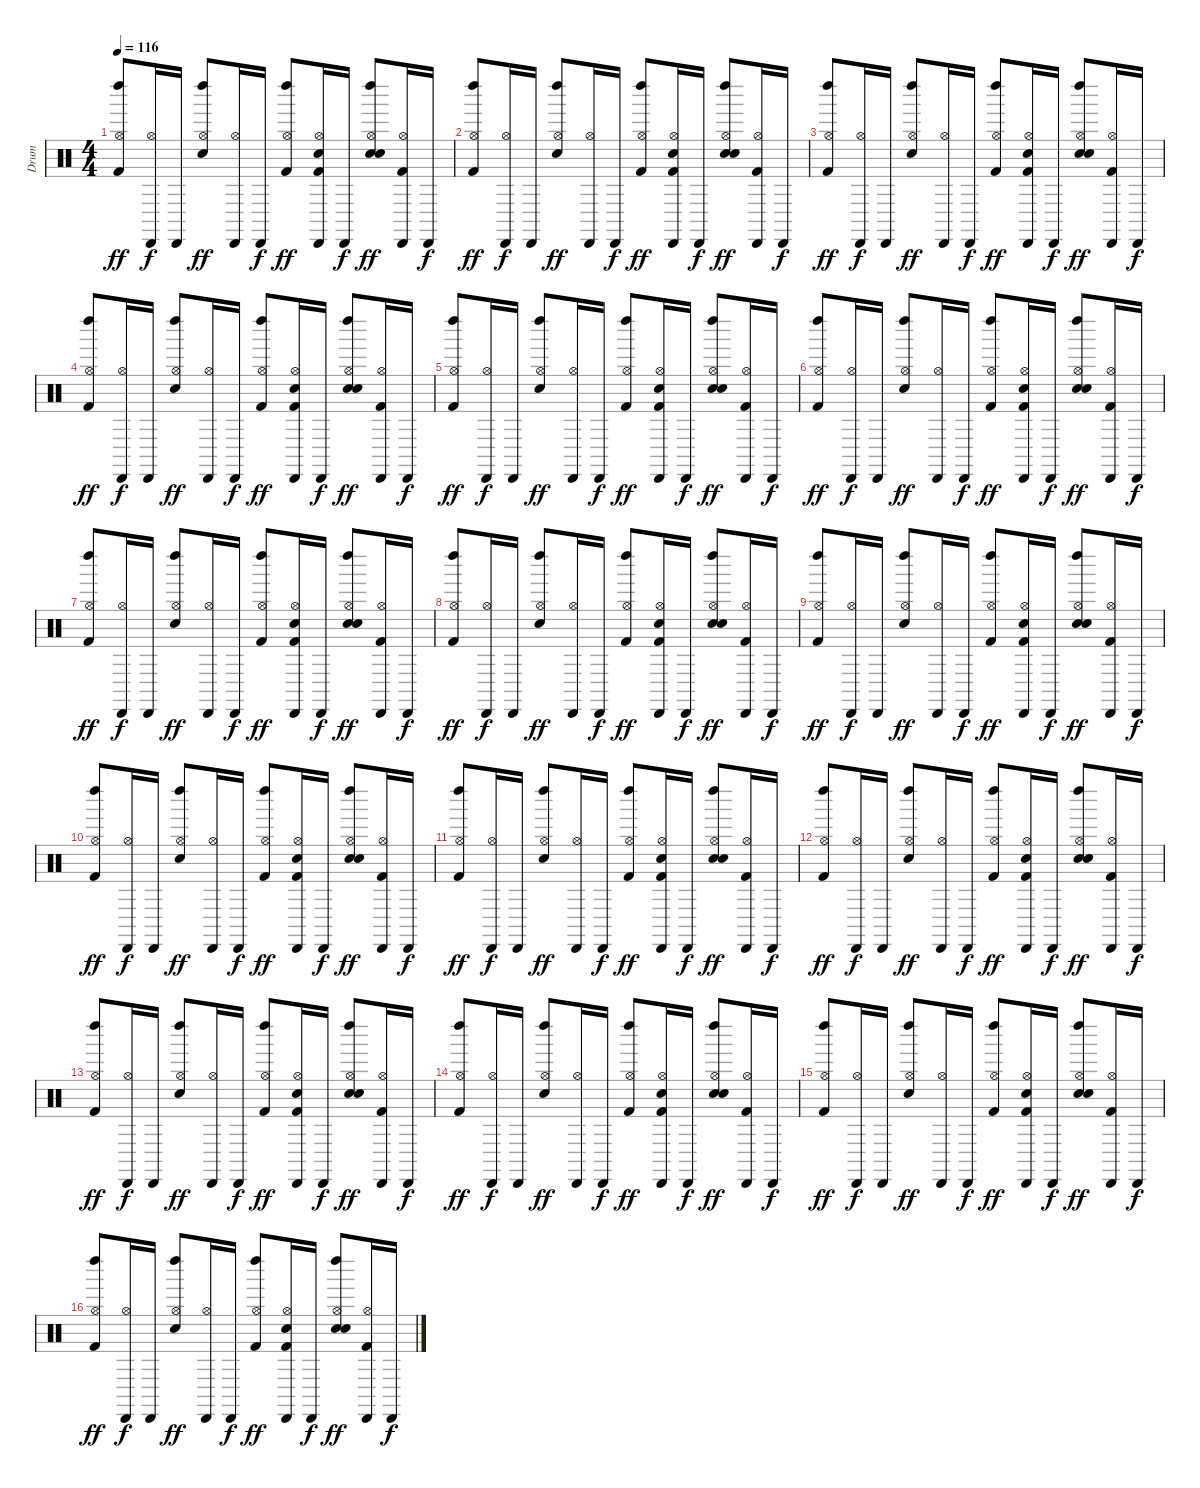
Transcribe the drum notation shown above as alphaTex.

\track ("Drum" "Drum") {instrument percussion}
\staff {score}
\articulation defaults
\ts (4 4)
\tempo 116
\clef neutral
\ks c
("Kick (hit) 2" "Hi-Hat (open)" "Left Maraca (hit)").8{dy ff} ("Hi-Hat (open)" "Cabasa (hit)").16{dy f} "Cabasa (hit)".16 ("Snare (hit) 2" "Hi-Hat (open)" "Left Maraca (hit)").8{dy ff} ("Hi-Hat (open)" "Cabasa (hit)").16 "Cabasa (hit)".16{dy f} ("Kick (hit) 2" "Hi-Hat (open)" "Left Maraca (hit)").8{dy ff} ("Kick (hit) 2" "Hand Clap (hit)" "Hi-Hat (open)" "Cabasa (hit)").16 "Cabasa (hit)".16{dy f} ("Snare (hit) 2" "Hand Clap (hit)" "Hi-Hat (open)" "Left Maraca (hit)").8{dy ff} ("Kick (hit) 2" "Hi-Hat (open)" "Cabasa (hit)").16 "Cabasa (hit)".16{dy f} |
("Kick (hit) 2" "Hi-Hat (open)" "Left Maraca (hit)").8{dy ff} ("Hi-Hat (open)" "Cabasa (hit)").16{dy f} "Cabasa (hit)".16 ("Snare (hit) 2" "Hi-Hat (open)" "Left Maraca (hit)").8{dy ff} ("Hi-Hat (open)" "Cabasa (hit)").16 "Cabasa (hit)".16{dy f} ("Kick (hit) 2" "Hi-Hat (open)" "Left Maraca (hit)").8{dy ff} ("Kick (hit) 2" "Hand Clap (hit)" "Hi-Hat (open)" "Cabasa (hit)").16 "Cabasa (hit)".16{dy f} ("Snare (hit) 2" "Hand Clap (hit)" "Hi-Hat (open)" "Left Maraca (hit)").8{dy ff} ("Kick (hit) 2" "Hi-Hat (open)" "Cabasa (hit)").16 "Cabasa (hit)".16{dy f} |
("Kick (hit) 2" "Hi-Hat (open)" "Left Maraca (hit)").8{dy ff} ("Hi-Hat (open)" "Cabasa (hit)").16{dy f} "Cabasa (hit)".16 ("Snare (hit) 2" "Hi-Hat (open)" "Left Maraca (hit)").8{dy ff} ("Hi-Hat (open)" "Cabasa (hit)").16 "Cabasa (hit)".16{dy f} ("Kick (hit) 2" "Hi-Hat (open)" "Left Maraca (hit)").8{dy ff} ("Kick (hit) 2" "Hand Clap (hit)" "Hi-Hat (open)" "Cabasa (hit)").16 "Cabasa (hit)".16{dy f} ("Snare (hit) 2" "Hand Clap (hit)" "Hi-Hat (open)" "Left Maraca (hit)").8{dy ff} ("Kick (hit) 2" "Hi-Hat (open)" "Cabasa (hit)").16 "Cabasa (hit)".16{dy f} |
("Kick (hit) 2" "Hi-Hat (open)" "Left Maraca (hit)").8{dy ff} ("Hi-Hat (open)" "Cabasa (hit)").16{dy f} "Cabasa (hit)".16 ("Snare (hit) 2" "Hi-Hat (open)" "Left Maraca (hit)").8{dy ff} ("Hi-Hat (open)" "Cabasa (hit)").16 "Cabasa (hit)".16{dy f} ("Kick (hit) 2" "Hi-Hat (open)" "Left Maraca (hit)").8{dy ff} ("Kick (hit) 2" "Hand Clap (hit)" "Hi-Hat (open)" "Cabasa (hit)").16 "Cabasa (hit)".16{dy f} ("Snare (hit) 2" "Hand Clap (hit)" "Hi-Hat (open)" "Left Maraca (hit)").8{dy ff} ("Kick (hit) 2" "Hi-Hat (open)" "Cabasa (hit)").16 "Cabasa (hit)".16{dy f} |
("Kick (hit) 2" "Hi-Hat (open)" "Left Maraca (hit)").8{dy ff} ("Hi-Hat (open)" "Cabasa (hit)").16{dy f} "Cabasa (hit)".16 ("Snare (hit) 2" "Hi-Hat (open)" "Left Maraca (hit)").8{dy ff} ("Hi-Hat (open)" "Cabasa (hit)").16 "Cabasa (hit)".16{dy f} ("Kick (hit) 2" "Hi-Hat (open)" "Left Maraca (hit)").8{dy ff} ("Kick (hit) 2" "Hand Clap (hit)" "Hi-Hat (open)" "Cabasa (hit)").16 "Cabasa (hit)".16{dy f} ("Snare (hit) 2" "Hand Clap (hit)" "Hi-Hat (open)" "Left Maraca (hit)").8{dy ff} ("Kick (hit) 2" "Hi-Hat (open)" "Cabasa (hit)").16 "Cabasa (hit)".16{dy f} |
("Kick (hit) 2" "Hi-Hat (open)" "Left Maraca (hit)").8{dy ff} ("Hi-Hat (open)" "Cabasa (hit)").16{dy f} "Cabasa (hit)".16 ("Snare (hit) 2" "Hi-Hat (open)" "Left Maraca (hit)").8{dy ff} ("Hi-Hat (open)" "Cabasa (hit)").16 "Cabasa (hit)".16{dy f} ("Kick (hit) 2" "Hi-Hat (open)" "Left Maraca (hit)").8{dy ff} ("Kick (hit) 2" "Hand Clap (hit)" "Hi-Hat (open)" "Cabasa (hit)").16 "Cabasa (hit)".16{dy f} ("Snare (hit) 2" "Hand Clap (hit)" "Hi-Hat (open)" "Left Maraca (hit)").8{dy ff} ("Kick (hit) 2" "Hi-Hat (open)" "Cabasa (hit)").16 "Cabasa (hit)".16{dy f} |
("Kick (hit) 2" "Hi-Hat (open)" "Left Maraca (hit)").8{dy ff} ("Hi-Hat (open)" "Cabasa (hit)").16{dy f} "Cabasa (hit)".16 ("Snare (hit) 2" "Hi-Hat (open)" "Left Maraca (hit)").8{dy ff} ("Hi-Hat (open)" "Cabasa (hit)").16 "Cabasa (hit)".16{dy f} ("Kick (hit) 2" "Hi-Hat (open)" "Left Maraca (hit)").8{dy ff} ("Kick (hit) 2" "Hand Clap (hit)" "Hi-Hat (open)" "Cabasa (hit)").16 "Cabasa (hit)".16{dy f} ("Snare (hit) 2" "Hand Clap (hit)" "Hi-Hat (open)" "Left Maraca (hit)").8{dy ff} ("Kick (hit) 2" "Hi-Hat (open)" "Cabasa (hit)").16 "Cabasa (hit)".16{dy f} |
("Kick (hit) 2" "Hi-Hat (open)" "Left Maraca (hit)").8{dy ff} ("Hi-Hat (open)" "Cabasa (hit)").16{dy f} "Cabasa (hit)".16 ("Snare (hit) 2" "Hi-Hat (open)" "Left Maraca (hit)").8{dy ff} ("Hi-Hat (open)" "Cabasa (hit)").16 "Cabasa (hit)".16{dy f} ("Kick (hit) 2" "Hi-Hat (open)" "Left Maraca (hit)").8{dy ff} ("Kick (hit) 2" "Hand Clap (hit)" "Hi-Hat (open)" "Cabasa (hit)").16 "Cabasa (hit)".16{dy f} ("Snare (hit) 2" "Hand Clap (hit)" "Hi-Hat (open)" "Left Maraca (hit)").8{dy ff} ("Kick (hit) 2" "Hi-Hat (open)" "Cabasa (hit)").16 "Cabasa (hit)".16{dy f} |
("Kick (hit) 2" "Hi-Hat (open)" "Left Maraca (hit)").8{dy ff} ("Hi-Hat (open)" "Cabasa (hit)").16{dy f} "Cabasa (hit)".16 ("Snare (hit) 2" "Hi-Hat (open)" "Left Maraca (hit)").8{dy ff} ("Hi-Hat (open)" "Cabasa (hit)").16 "Cabasa (hit)".16{dy f} ("Kick (hit) 2" "Hi-Hat (open)" "Left Maraca (hit)").8{dy ff} ("Kick (hit) 2" "Hand Clap (hit)" "Hi-Hat (open)" "Cabasa (hit)").16 "Cabasa (hit)".16{dy f} ("Snare (hit) 2" "Hand Clap (hit)" "Hi-Hat (open)" "Left Maraca (hit)").8{dy ff} ("Kick (hit) 2" "Hi-Hat (open)" "Cabasa (hit)").16 "Cabasa (hit)".16{dy f} |
("Kick (hit) 2" "Hi-Hat (open)" "Left Maraca (hit)").8{dy ff} ("Hi-Hat (open)" "Cabasa (hit)").16{dy f} "Cabasa (hit)".16 ("Snare (hit) 2" "Hi-Hat (open)" "Left Maraca (hit)").8{dy ff} ("Hi-Hat (open)" "Cabasa (hit)").16 "Cabasa (hit)".16{dy f} ("Kick (hit) 2" "Hi-Hat (open)" "Left Maraca (hit)").8{dy ff} ("Kick (hit) 2" "Hand Clap (hit)" "Hi-Hat (open)" "Cabasa (hit)").16 "Cabasa (hit)".16{dy f} ("Snare (hit) 2" "Hand Clap (hit)" "Hi-Hat (open)" "Left Maraca (hit)").8{dy ff} ("Kick (hit) 2" "Hi-Hat (open)" "Cabasa (hit)").16 "Cabasa (hit)".16{dy f} |
("Kick (hit) 2" "Hi-Hat (open)" "Left Maraca (hit)").8{dy ff} ("Hi-Hat (open)" "Cabasa (hit)").16{dy f} "Cabasa (hit)".16 ("Snare (hit) 2" "Hi-Hat (open)" "Left Maraca (hit)").8{dy ff} ("Hi-Hat (open)" "Cabasa (hit)").16 "Cabasa (hit)".16{dy f} ("Kick (hit) 2" "Hi-Hat (open)" "Left Maraca (hit)").8{dy ff} ("Kick (hit) 2" "Hand Clap (hit)" "Hi-Hat (open)" "Cabasa (hit)").16 "Cabasa (hit)".16{dy f} ("Snare (hit) 2" "Hand Clap (hit)" "Hi-Hat (open)" "Left Maraca (hit)").8{dy ff} ("Kick (hit) 2" "Hi-Hat (open)" "Cabasa (hit)").16 "Cabasa (hit)".16{dy f} |
("Kick (hit) 2" "Hi-Hat (open)" "Left Maraca (hit)").8{dy ff} ("Hi-Hat (open)" "Cabasa (hit)").16{dy f} "Cabasa (hit)".16 ("Snare (hit) 2" "Hi-Hat (open)" "Left Maraca (hit)").8{dy ff} ("Hi-Hat (open)" "Cabasa (hit)").16 "Cabasa (hit)".16{dy f} ("Kick (hit) 2" "Hi-Hat (open)" "Left Maraca (hit)").8{dy ff} ("Kick (hit) 2" "Hand Clap (hit)" "Hi-Hat (open)" "Cabasa (hit)").16 "Cabasa (hit)".16{dy f} ("Snare (hit) 2" "Hand Clap (hit)" "Hi-Hat (open)" "Left Maraca (hit)").8{dy ff} ("Kick (hit) 2" "Hi-Hat (open)" "Cabasa (hit)").16 "Cabasa (hit)".16{dy f} |
("Kick (hit) 2" "Hi-Hat (open)" "Left Maraca (hit)").8{dy ff} ("Hi-Hat (open)" "Cabasa (hit)").16{dy f} "Cabasa (hit)".16 ("Snare (hit) 2" "Hi-Hat (open)" "Left Maraca (hit)").8{dy ff} ("Hi-Hat (open)" "Cabasa (hit)").16 "Cabasa (hit)".16{dy f} ("Kick (hit) 2" "Hi-Hat (open)" "Left Maraca (hit)").8{dy ff} ("Kick (hit) 2" "Hand Clap (hit)" "Hi-Hat (open)" "Cabasa (hit)").16 "Cabasa (hit)".16{dy f} ("Snare (hit) 2" "Hand Clap (hit)" "Hi-Hat (open)" "Left Maraca (hit)").8{dy ff} ("Kick (hit) 2" "Hi-Hat (open)" "Cabasa (hit)").16 "Cabasa (hit)".16{dy f} |
("Kick (hit) 2" "Hi-Hat (open)" "Left Maraca (hit)").8{dy ff} ("Hi-Hat (open)" "Cabasa (hit)").16{dy f} "Cabasa (hit)".16 ("Snare (hit) 2" "Hi-Hat (open)" "Left Maraca (hit)").8{dy ff} ("Hi-Hat (open)" "Cabasa (hit)").16 "Cabasa (hit)".16{dy f} ("Kick (hit) 2" "Hi-Hat (open)" "Left Maraca (hit)").8{dy ff} ("Kick (hit) 2" "Hand Clap (hit)" "Hi-Hat (open)" "Cabasa (hit)").16 "Cabasa (hit)".16{dy f} ("Snare (hit) 2" "Hand Clap (hit)" "Hi-Hat (open)" "Left Maraca (hit)").8{dy ff} ("Kick (hit) 2" "Hi-Hat (open)" "Cabasa (hit)").16 "Cabasa (hit)".16{dy f} |
("Kick (hit) 2" "Hi-Hat (open)" "Left Maraca (hit)").8{dy ff} ("Hi-Hat (open)" "Cabasa (hit)").16{dy f} "Cabasa (hit)".16 ("Snare (hit) 2" "Hi-Hat (open)" "Left Maraca (hit)").8{dy ff} ("Hi-Hat (open)" "Cabasa (hit)").16 "Cabasa (hit)".16{dy f} ("Kick (hit) 2" "Hi-Hat (open)" "Left Maraca (hit)").8{dy ff} ("Kick (hit) 2" "Hand Clap (hit)" "Hi-Hat (open)" "Cabasa (hit)").16 "Cabasa (hit)".16{dy f} ("Snare (hit) 2" "Hand Clap (hit)" "Hi-Hat (open)" "Left Maraca (hit)").8{dy ff} ("Kick (hit) 2" "Hi-Hat (open)" "Cabasa (hit)").16 "Cabasa (hit)".16{dy f} |
("Kick (hit) 2" "Hi-Hat (open)" "Left Maraca (hit)").8{dy ff} ("Hi-Hat (open)" "Cabasa (hit)").16{dy f} "Cabasa (hit)".16 ("Snare (hit) 2" "Hi-Hat (open)" "Left Maraca (hit)").8{dy ff} ("Hi-Hat (open)" "Cabasa (hit)").16 "Cabasa (hit)".16{dy f} ("Kick (hit) 2" "Hi-Hat (open)" "Left Maraca (hit)").8{dy ff} ("Kick (hit) 2" "Hand Clap (hit)" "Hi-Hat (open)" "Cabasa (hit)").16 "Cabasa (hit)".16{dy f} ("Snare (hit) 2" "Hand Clap (hit)" "Hi-Hat (open)" "Left Maraca (hit)").8{dy ff} ("Kick (hit) 2" "Hi-Hat (open)" "Cabasa (hit)").16 "Cabasa (hit)".16{dy f}
